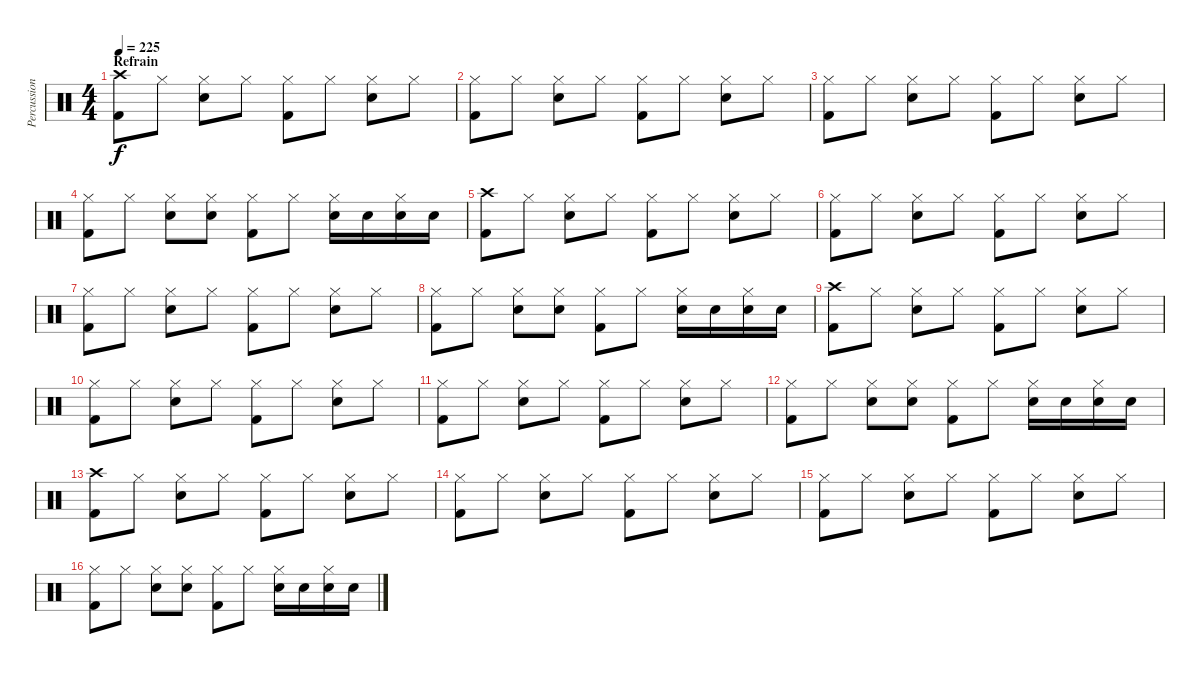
\track ("Percussions" "Percussion") {instrument percussion}
\staff {score}
\articulation defaults
\ts (4 4)
\section ("" "Refrain")
\tempo 225
\clef neutral
\ks c
("Crash high (hit)" "Kick (hit) 2").8{dy f} "Hi-Hat (closed)".8 ("Hi-Hat (closed)" "Snare (hit) 2").8 "Hi-Hat (closed)".8 ("Hi-Hat (closed)" "Kick (hit) 2").8 "Hi-Hat (closed)".8 ("Hi-Hat (closed)" "Snare (hit) 2").8 "Hi-Hat (closed)".8 |
("Hi-Hat (closed)" "Kick (hit) 2").8 "Hi-Hat (closed)".8 ("Hi-Hat (closed)" "Snare (hit) 2").8 "Hi-Hat (closed)".8 ("Hi-Hat (closed)" "Kick (hit) 2").8 "Hi-Hat (closed)".8 ("Hi-Hat (closed)" "Snare (hit) 2").8 "Hi-Hat (closed)".8 |
("Hi-Hat (closed)" "Kick (hit) 2").8 "Hi-Hat (closed)".8 ("Hi-Hat (closed)" "Snare (hit) 2").8 "Hi-Hat (closed)".8 ("Hi-Hat (closed)" "Kick (hit) 2").8 "Hi-Hat (closed)".8 ("Hi-Hat (closed)" "Snare (hit) 2").8 "Hi-Hat (closed)".8 |
("Hi-Hat (closed)" "Kick (hit) 2").8 "Hi-Hat (closed)".8 ("Hi-Hat (closed)" "Snare (hit) 2").8 ("Hi-Hat (closed)" "Snare (hit) 2").8 ("Hi-Hat (closed)" "Kick (hit) 2").8 "Hi-Hat (closed)".8 ("Hi-Hat (closed)" "Snare (hit) 2").16 "Snare (hit) 2".16 ("Hi-Hat (closed)" "Snare (hit) 2").16 "Snare (hit) 2".16 |
("Crash high (hit)" "Kick (hit) 2").8 "Hi-Hat (closed)".8 ("Hi-Hat (closed)" "Snare (hit) 2").8 "Hi-Hat (closed)".8 ("Hi-Hat (closed)" "Kick (hit) 2").8 "Hi-Hat (closed)".8 ("Hi-Hat (closed)" "Snare (hit) 2").8 "Hi-Hat (closed)".8 |
("Hi-Hat (closed)" "Kick (hit) 2").8 "Hi-Hat (closed)".8 ("Hi-Hat (closed)" "Snare (hit) 2").8 "Hi-Hat (closed)".8 ("Hi-Hat (closed)" "Kick (hit) 2").8 "Hi-Hat (closed)".8 ("Hi-Hat (closed)" "Snare (hit) 2").8 "Hi-Hat (closed)".8 |
("Hi-Hat (closed)" "Kick (hit) 2").8 "Hi-Hat (closed)".8 ("Hi-Hat (closed)" "Snare (hit) 2").8 "Hi-Hat (closed)".8 ("Hi-Hat (closed)" "Kick (hit) 2").8 "Hi-Hat (closed)".8 ("Hi-Hat (closed)" "Snare (hit) 2").8 "Hi-Hat (closed)".8 |
("Hi-Hat (closed)" "Kick (hit) 2").8 "Hi-Hat (closed)".8 ("Hi-Hat (closed)" "Snare (hit) 2").8 ("Hi-Hat (closed)" "Snare (hit) 2").8 ("Hi-Hat (closed)" "Kick (hit) 2").8 "Hi-Hat (closed)".8 ("Hi-Hat (closed)" "Snare (hit) 2").16 "Snare (hit) 2".16 ("Hi-Hat (closed)" "Snare (hit) 2").16 "Snare (hit) 2".16 |
("Crash high (hit)" "Kick (hit) 2").8 "Hi-Hat (closed)".8 ("Hi-Hat (closed)" "Snare (hit) 2").8 "Hi-Hat (closed)".8 ("Hi-Hat (closed)" "Kick (hit) 2").8 "Hi-Hat (closed)".8 ("Hi-Hat (closed)" "Snare (hit) 2").8 "Hi-Hat (closed)".8 |
("Hi-Hat (closed)" "Kick (hit) 2").8 "Hi-Hat (closed)".8 ("Hi-Hat (closed)" "Snare (hit) 2").8 "Hi-Hat (closed)".8 ("Hi-Hat (closed)" "Kick (hit) 2").8 "Hi-Hat (closed)".8 ("Hi-Hat (closed)" "Snare (hit) 2").8 "Hi-Hat (closed)".8 |
("Hi-Hat (closed)" "Kick (hit) 2").8 "Hi-Hat (closed)".8 ("Hi-Hat (closed)" "Snare (hit) 2").8 "Hi-Hat (closed)".8 ("Hi-Hat (closed)" "Kick (hit) 2").8 "Hi-Hat (closed)".8 ("Hi-Hat (closed)" "Snare (hit) 2").8 "Hi-Hat (closed)".8 |
("Hi-Hat (closed)" "Kick (hit) 2").8 "Hi-Hat (closed)".8 ("Hi-Hat (closed)" "Snare (hit) 2").8 ("Hi-Hat (closed)" "Snare (hit) 2").8 ("Hi-Hat (closed)" "Kick (hit) 2").8 "Hi-Hat (closed)".8 ("Hi-Hat (closed)" "Snare (hit) 2").16 "Snare (hit) 2".16 ("Hi-Hat (closed)" "Snare (hit) 2").16 "Snare (hit) 2".16 |
("Crash high (hit)" "Kick (hit) 2").8 "Hi-Hat (closed)".8 ("Hi-Hat (closed)" "Snare (hit) 2").8 "Hi-Hat (closed)".8 ("Hi-Hat (closed)" "Kick (hit) 2").8 "Hi-Hat (closed)".8 ("Hi-Hat (closed)" "Snare (hit) 2").8 "Hi-Hat (closed)".8 |
("Hi-Hat (closed)" "Kick (hit) 2").8 "Hi-Hat (closed)".8 ("Hi-Hat (closed)" "Snare (hit) 2").8 "Hi-Hat (closed)".8 ("Hi-Hat (closed)" "Kick (hit) 2").8 "Hi-Hat (closed)".8 ("Hi-Hat (closed)" "Snare (hit) 2").8 "Hi-Hat (closed)".8 |
("Hi-Hat (closed)" "Kick (hit) 2").8 "Hi-Hat (closed)".8 ("Hi-Hat (closed)" "Snare (hit) 2").8 "Hi-Hat (closed)".8 ("Hi-Hat (closed)" "Kick (hit) 2").8 "Hi-Hat (closed)".8 ("Hi-Hat (closed)" "Snare (hit) 2").8 "Hi-Hat (closed)".8 |
("Hi-Hat (closed)" "Kick (hit) 2").8 "Hi-Hat (closed)".8 ("Hi-Hat (closed)" "Snare (hit) 2").8 ("Hi-Hat (closed)" "Snare (hit) 2").8 ("Hi-Hat (closed)" "Kick (hit) 2").8 "Hi-Hat (closed)".8 ("Hi-Hat (closed)" "Snare (hit) 2").16 "Snare (hit) 2".16 ("Hi-Hat (closed)" "Snare (hit) 2").16 "Snare (hit) 2".16
